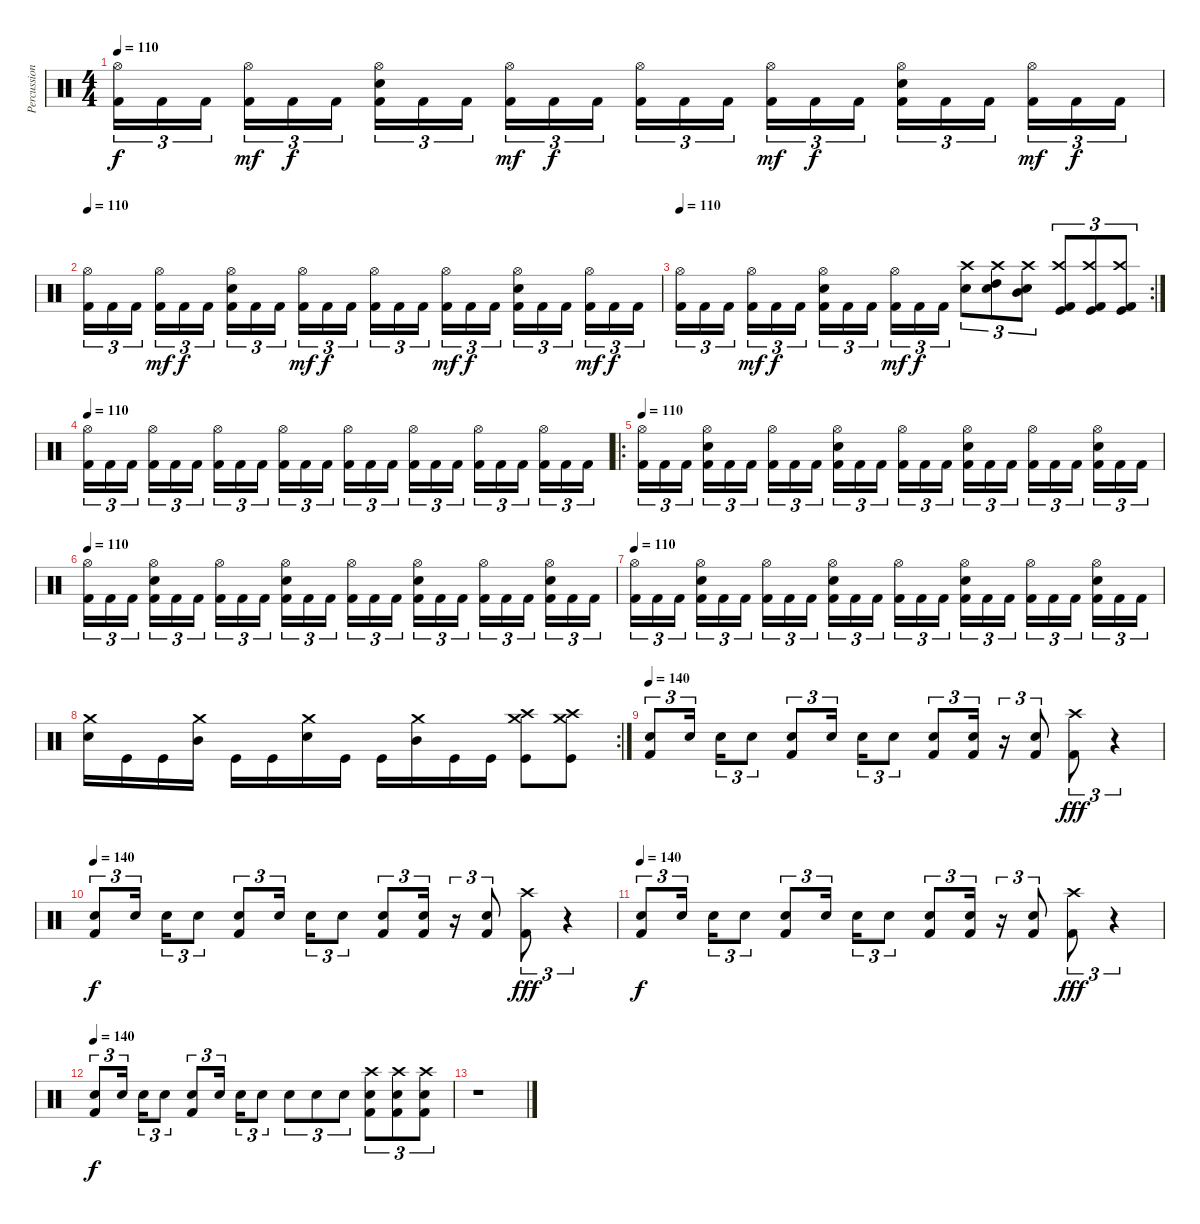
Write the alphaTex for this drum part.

\track ("Percussion" "Percussion") {instrument percussion}
\staff {score}
\articulation defaults
\ts (4 4)
\tempo 110
\clef neutral
\ks c
("Hi-Hat (open)" "Kick (hit) 2").16{tu (3 2) dy f} "Kick (hit) 2".16{tu (3 2)} "Kick (hit) 2".16{tu (3 2)} ("Hi-Hat (open)" "Kick (hit) 2").16{tu (3 2) dy mf} "Kick (hit) 2".16{tu (3 2) dy f} "Kick (hit) 2".16{tu (3 2)} ("Hi-Hat (open)" "Electric Snare (hit)" "Kick (hit) 2").16{tu (3 2)} "Kick (hit) 2".16{tu (3 2)} "Kick (hit) 2".16{tu (3 2)} ("Hi-Hat (open)" "Kick (hit) 2").16{tu (3 2) dy mf} "Kick (hit) 2".16{tu (3 2) dy f} "Kick (hit) 2".16{tu (3 2)} ("Hi-Hat (open)" "Kick (hit) 2").16{tu (3 2)} "Kick (hit) 2".16{tu (3 2)} "Kick (hit) 2".16{tu (3 2)} ("Hi-Hat (open)" "Kick (hit) 2").16{tu (3 2) dy mf} "Kick (hit) 2".16{tu (3 2) dy f} "Kick (hit) 2".16{tu (3 2)} ("Hi-Hat (open)" "Electric Snare (hit)" "Kick (hit) 2").16{tu (3 2)} "Kick (hit) 2".16{tu (3 2)} "Kick (hit) 2".16{tu (3 2)} ("Hi-Hat (open)" "Kick (hit) 2").16{tu (3 2) dy mf} "Kick (hit) 2".16{tu (3 2) dy f} "Kick (hit) 2".16{tu (3 2)} |
\tempo 110
("Hi-Hat (open)" "Kick (hit) 2").16{tu (3 2) volume 11} "Kick (hit) 2".16{tu (3 2)} "Kick (hit) 2".16{tu (3 2)} ("Hi-Hat (open)" "Kick (hit) 2").16{tu (3 2) dy mf} "Kick (hit) 2".16{tu (3 2) dy f} "Kick (hit) 2".16{tu (3 2)} ("Hi-Hat (open)" "Electric Snare (hit)" "Kick (hit) 2").16{tu (3 2)} "Kick (hit) 2".16{tu (3 2)} "Kick (hit) 2".16{tu (3 2)} ("Hi-Hat (open)" "Kick (hit) 2").16{tu (3 2) dy mf} "Kick (hit) 2".16{tu (3 2) dy f} "Kick (hit) 2".16{tu (3 2)} ("Hi-Hat (open)" "Kick (hit) 2").16{tu (3 2)} "Kick (hit) 2".16{tu (3 2)} "Kick (hit) 2".16{tu (3 2)} ("Hi-Hat (open)" "Kick (hit) 2").16{tu (3 2) dy mf} "Kick (hit) 2".16{tu (3 2) dy f} "Kick (hit) 2".16{tu (3 2)} ("Hi-Hat (open)" "Electric Snare (hit)" "Kick (hit) 2").16{tu (3 2)} "Kick (hit) 2".16{tu (3 2)} "Kick (hit) 2".16{tu (3 2)} ("Hi-Hat (open)" "Kick (hit) 2").16{tu (3 2) dy mf} "Kick (hit) 2".16{tu (3 2) dy f} "Kick (hit) 2".16{tu (3 2)} |
\rc 2
\tempo 110
("Hi-Hat (open)" "Kick (hit) 2").16{tu (3 2)} "Kick (hit) 2".16{tu (3 2)} "Kick (hit) 2".16{tu (3 2)} ("Hi-Hat (open)" "Kick (hit) 2").16{tu (3 2) dy mf} "Kick (hit) 2".16{tu (3 2) dy f} "Kick (hit) 2".16{tu (3 2)} ("Hi-Hat (open)" "Electric Snare (hit)" "Kick (hit) 2").16{tu (3 2)} "Kick (hit) 2".16{tu (3 2)} "Kick (hit) 2".16{tu (3 2)} ("Hi-Hat (open)" "Kick (hit) 2").16{tu (3 2) dy mf} "Kick (hit) 2".16{tu (3 2) dy f} "Kick (hit) 2".16{tu (3 2)} ("Crash high (hit)" "Electric Snare (hit)").8{tu (3 2)} ("Crash high (hit)" "High Tom (hit)" "Electric Snare (hit)").8{tu (3 2)} ("Crash high (hit)" "Mid Tom (hit)" "Electric Snare (hit)").8{tu (3 2)} ("Crash high (hit)" "Kick (hit)" "Kick (hit) 2").8{tu (3 2)} ("Crash high (hit)" "Kick (hit)" "Kick (hit) 2").8{tu (3 2)} ("Crash high (hit)" "Kick (hit)" "Kick (hit) 2").8{tu (3 2)} |
\tempo 110
("Hi-Hat (open)" "Kick (hit) 2").16{tu (3 2)} "Kick (hit) 2".16{tu (3 2)} "Kick (hit) 2".16{tu (3 2)} ("Hi-Hat (open)" "Kick (hit) 2").16{tu (3 2)} "Kick (hit) 2".16{tu (3 2)} "Kick (hit) 2".16{tu (3 2)} ("Hi-Hat (open)" "Kick (hit) 2").16{tu (3 2)} "Kick (hit) 2".16{tu (3 2)} "Kick (hit) 2".16{tu (3 2)} ("Hi-Hat (open)" "Kick (hit) 2").16{tu (3 2)} "Kick (hit) 2".16{tu (3 2)} "Kick (hit) 2".16{tu (3 2)} ("Hi-Hat (open)" "Kick (hit) 2").16{tu (3 2)} "Kick (hit) 2".16{tu (3 2)} "Kick (hit) 2".16{tu (3 2)} ("Hi-Hat (open)" "Kick (hit) 2").16{tu (3 2)} "Kick (hit) 2".16{tu (3 2)} "Kick (hit) 2".16{tu (3 2)} ("Hi-Hat (open)" "Kick (hit) 2").16{tu (3 2)} "Kick (hit) 2".16{tu (3 2)} "Kick (hit) 2".16{tu (3 2)} ("Hi-Hat (open)" "Kick (hit) 2").16{tu (3 2)} "Kick (hit) 2".16{tu (3 2)} "Kick (hit) 2".16{tu (3 2)} |
\ro
\tempo 110
("Hi-Hat (open)" "Kick (hit) 2").16{tu (3 2)} "Kick (hit) 2".16{tu (3 2)} "Kick (hit) 2".16{tu (3 2)} ("Hi-Hat (open)" "Electric Snare (hit)" "Kick (hit) 2").16{tu (3 2)} "Kick (hit) 2".16{tu (3 2)} "Kick (hit) 2".16{tu (3 2)} ("Hi-Hat (open)" "Kick (hit) 2").16{tu (3 2)} "Kick (hit) 2".16{tu (3 2)} "Kick (hit) 2".16{tu (3 2)} ("Hi-Hat (open)" "Electric Snare (hit)" "Kick (hit) 2").16{tu (3 2)} "Kick (hit) 2".16{tu (3 2)} "Kick (hit) 2".16{tu (3 2)} ("Hi-Hat (open)" "Kick (hit) 2").16{tu (3 2)} "Kick (hit) 2".16{tu (3 2)} "Kick (hit) 2".16{tu (3 2)} ("Hi-Hat (open)" "Electric Snare (hit)" "Kick (hit) 2").16{tu (3 2)} "Kick (hit) 2".16{tu (3 2)} "Kick (hit) 2".16{tu (3 2)} ("Hi-Hat (open)" "Kick (hit) 2").16{tu (3 2)} "Kick (hit) 2".16{tu (3 2)} "Kick (hit) 2".16{tu (3 2)} ("Hi-Hat (open)" "Electric Snare (hit)" "Kick (hit) 2").16{tu (3 2)} "Kick (hit) 2".16{tu (3 2)} "Kick (hit) 2".16{tu (3 2)} |
\tempo 110
("Hi-Hat (open)" "Kick (hit) 2").16{tu (3 2)} "Kick (hit) 2".16{tu (3 2)} "Kick (hit) 2".16{tu (3 2)} ("Hi-Hat (open)" "Electric Snare (hit)" "Kick (hit) 2").16{tu (3 2)} "Kick (hit) 2".16{tu (3 2)} "Kick (hit) 2".16{tu (3 2)} ("Hi-Hat (open)" "Kick (hit) 2").16{tu (3 2)} "Kick (hit) 2".16{tu (3 2)} "Kick (hit) 2".16{tu (3 2)} ("Hi-Hat (open)" "Electric Snare (hit)" "Kick (hit) 2").16{tu (3 2)} "Kick (hit) 2".16{tu (3 2)} "Kick (hit) 2".16{tu (3 2)} ("Hi-Hat (open)" "Kick (hit) 2").16{tu (3 2)} "Kick (hit) 2".16{tu (3 2)} "Kick (hit) 2".16{tu (3 2)} ("Hi-Hat (open)" "Electric Snare (hit)" "Kick (hit) 2").16{tu (3 2)} "Kick (hit) 2".16{tu (3 2)} "Kick (hit) 2".16{tu (3 2)} ("Hi-Hat (open)" "Kick (hit) 2").16{tu (3 2)} "Kick (hit) 2".16{tu (3 2)} "Kick (hit) 2".16{tu (3 2)} ("Hi-Hat (open)" "Electric Snare (hit)" "Kick (hit) 2").16{tu (3 2)} "Kick (hit) 2".16{tu (3 2)} "Kick (hit) 2".16{tu (3 2)} |
\tempo 110
("Hi-Hat (open)" "Kick (hit) 2").16{tu (3 2)} "Kick (hit) 2".16{tu (3 2)} "Kick (hit) 2".16{tu (3 2)} ("Hi-Hat (open)" "Electric Snare (hit)" "Kick (hit) 2").16{tu (3 2)} "Kick (hit) 2".16{tu (3 2)} "Kick (hit) 2".16{tu (3 2)} ("Hi-Hat (open)" "Kick (hit) 2").16{tu (3 2)} "Kick (hit) 2".16{tu (3 2)} "Kick (hit) 2".16{tu (3 2)} ("Hi-Hat (open)" "Electric Snare (hit)" "Kick (hit) 2").16{tu (3 2)} "Kick (hit) 2".16{tu (3 2)} "Kick (hit) 2".16{tu (3 2)} ("Hi-Hat (open)" "Kick (hit) 2").16{tu (3 2)} "Kick (hit) 2".16{tu (3 2)} "Kick (hit) 2".16{tu (3 2)} ("Hi-Hat (open)" "Electric Snare (hit)" "Kick (hit) 2").16{tu (3 2)} "Kick (hit) 2".16{tu (3 2)} "Kick (hit) 2".16{tu (3 2)} ("Hi-Hat (open)" "Kick (hit) 2").16{tu (3 2)} "Kick (hit) 2".16{tu (3 2)} "Kick (hit) 2".16{tu (3 2)} ("Hi-Hat (open)" "Electric Snare (hit)" "Kick (hit) 2").16{tu (3 2)} "Kick (hit) 2".16{tu (3 2)} "Kick (hit) 2".16{tu (3 2)} |
\rc 2
("Crash medium (hit)" "Electric Snare (hit)").16 "Kick (hit)".16 "Kick (hit)".16 ("Crash medium (hit)" "Mid Tom (hit)").16 "Kick (hit)".16 "Kick (hit)".16 ("Crash medium (hit)" "Electric Snare (hit)").16 "Kick (hit)".16 "Kick (hit)".16 ("Crash medium (hit)" "Mid Tom (hit)").16 "Kick (hit)".16 "Kick (hit)".16 ("Crash medium (hit)" "Crash high (hit)" "Kick (hit)").8 ("Crash medium (hit)" "Crash high (hit)" "Kick (hit)").8 |
\tempo 140
("Electric Snare (hit)" "Kick (hit) 2").8{tu (3 2)} "Electric Snare (hit)".16{tu (3 2)} "Electric Snare (hit)".16{tu (3 2)} "Electric Snare (hit)".8{tu (3 2)} ("Electric Snare (hit)" "Kick (hit) 2").8{tu (3 2)} "Electric Snare (hit)".16{tu (3 2)} "Electric Snare (hit)".16{tu (3 2)} "Electric Snare (hit)".8{tu (3 2)} ("Electric Snare (hit)" "Kick (hit) 2").8{tu (3 2)} ("Electric Snare (hit)" "Kick (hit) 2").16{tu (3 2)} r.16{tu (3 2)} ("Electric Snare (hit)" "Kick (hit) 2").8{tu (3 2)} ("Crash high (hit)" "Kick (hit) 2").8{tu (3 2) dy fff} r.4{tu (3 2)} |
\tempo 140
("Electric Snare (hit)" "Kick (hit) 2").8{tu (3 2) dy f} "Electric Snare (hit)".16{tu (3 2)} "Electric Snare (hit)".16{tu (3 2)} "Electric Snare (hit)".8{tu (3 2)} ("Electric Snare (hit)" "Kick (hit) 2").8{tu (3 2)} "Electric Snare (hit)".16{tu (3 2)} "Electric Snare (hit)".16{tu (3 2)} "Electric Snare (hit)".8{tu (3 2)} ("Electric Snare (hit)" "Kick (hit) 2").8{tu (3 2)} ("Electric Snare (hit)" "Kick (hit) 2").16{tu (3 2)} r.16{tu (3 2)} ("Electric Snare (hit)" "Kick (hit) 2").8{tu (3 2)} ("Crash high (hit)" "Kick (hit) 2").8{tu (3 2) dy fff} r.4{tu (3 2)} |
\tempo 140
("Electric Snare (hit)" "Kick (hit) 2").8{tu (3 2) dy f} "Electric Snare (hit)".16{tu (3 2)} "Electric Snare (hit)".16{tu (3 2)} "Electric Snare (hit)".8{tu (3 2)} ("Electric Snare (hit)" "Kick (hit) 2").8{tu (3 2)} "Electric Snare (hit)".16{tu (3 2)} "Electric Snare (hit)".16{tu (3 2)} "Electric Snare (hit)".8{tu (3 2)} ("Electric Snare (hit)" "Kick (hit) 2").8{tu (3 2)} ("Electric Snare (hit)" "Kick (hit) 2").16{tu (3 2)} r.16{tu (3 2)} ("Electric Snare (hit)" "Kick (hit) 2").8{tu (3 2)} ("Crash high (hit)" "Kick (hit) 2").8{tu (3 2) dy fff} r.4{tu (3 2)} |
\tempo 140
("Electric Snare (hit)" "Kick (hit) 2").8{tu (3 2) dy f} "Electric Snare (hit)".16{tu (3 2)} "Electric Snare (hit)".16{tu (3 2)} "Electric Snare (hit)".8{tu (3 2)} ("Electric Snare (hit)" "Kick (hit) 2").8{tu (3 2)} "Electric Snare (hit)".16{tu (3 2)} "Electric Snare (hit)".16{tu (3 2)} "Electric Snare (hit)".8{tu (3 2)} "Electric Snare (hit)".8{tu (3 2)} "Electric Snare (hit)".8{tu (3 2)} "Electric Snare (hit)".8{tu (3 2)} ("Crash high (hit)" "Electric Snare (hit)" "Kick (hit) 2").8{tu (3 2)} ("Crash high (hit)" "Electric Snare (hit)" "Kick (hit) 2").8{tu (3 2)} ("Crash high (hit)" "Electric Snare (hit)" "Kick (hit) 2").8{tu (3 2)} |
r.1
